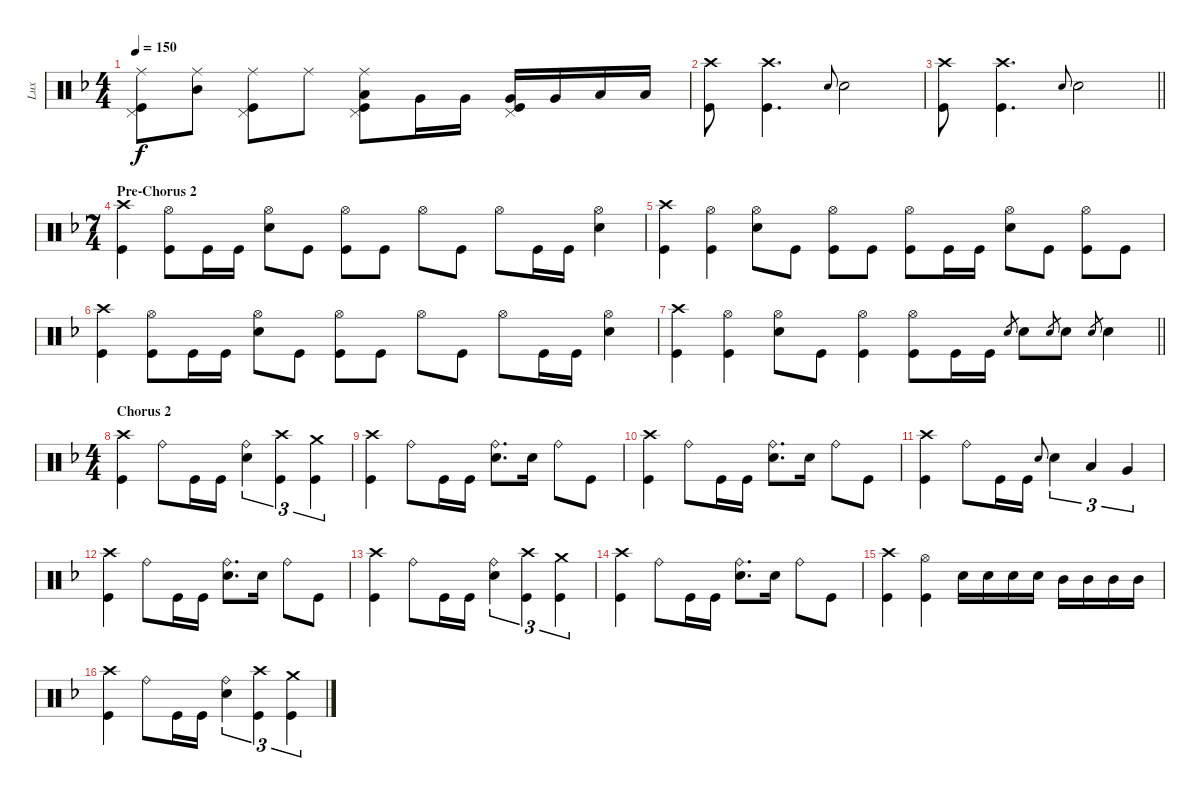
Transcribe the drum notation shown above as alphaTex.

\track ("Lux" "Lux") {instrument percussion}
\staff {score}
\articulation defaults
\ts (4 4)
\tempo 150
\clef neutral
\ks dminor
("Ride (middle)" "Pedal Hi-Hat (hit)" "Kick (hit)").8{dy f} ("Ride (middle)" "Mid Tom (hit)").8 ("Ride (middle)" "Pedal Hi-Hat (hit)" "Kick (hit)").8 "Ride (middle)".8 ("Ride (middle)" "Low Tom (hit)" "Pedal Hi-Hat (hit)" "Kick (hit)").8 "Very Low Tom (hit)".16 "Very Low Tom (hit)".16 ("Very Low Tom (hit)" "Pedal Hi-Hat (hit)" "Kick (hit)").16 "Very Low Tom (hit)".16 "Low Floor Tom (hit)".16 "Low Floor Tom (hit)".16 |
("Crash high (hit)" "Kick (hit)").8 ("Crash high (hit)" "Kick (hit)").4{d} "Snare (hit) 2".8{gr onbeat} "Snare (hit) 2".2 |
\barLineRight lightlight
("Crash high (hit)" "Kick (hit)").8 ("Crash high (hit)" "Kick (hit)").4{d} "Snare (hit) 2".8{gr onbeat} "Snare (hit) 2".2 |
\ts (7 4)
\section ("" "Pre-Chorus 2")
("Crash high (hit)" "Kick (hit)").4 ("Hi-Hat (open)" "Kick (hit)").8 "Kick (hit)".16 "Kick (hit)".16 ("Hi-Hat (open)" "Snare (hit) 2").8 "Kick (hit)".8 ("Hi-Hat (open)" "Kick (hit)").8 "Kick (hit)".8 "Hi-Hat (open)".8 "Kick (hit)".8 "Hi-Hat (open)".8 "Kick (hit)".16 "Kick (hit)".16 ("Hi-Hat (open)" "Snare (hit) 2").4 |
("Crash high (hit)" "Kick (hit)").4 ("Hi-Hat (open)" "Kick (hit)").4 ("Hi-Hat (open)" "Snare (hit) 2").8 "Kick (hit)".8 ("Hi-Hat (open)" "Kick (hit)").8 "Kick (hit)".8 ("Hi-Hat (open)" "Kick (hit)").8 "Kick (hit)".16 "Kick (hit)".16 ("Hi-Hat (open)" "Snare (hit) 2").8 "Kick (hit)".8 ("Hi-Hat (open)" "Kick (hit)").8 "Kick (hit)".8 |
("Crash high (hit)" "Kick (hit)").4 ("Hi-Hat (open)" "Kick (hit)").8 "Kick (hit)".16 "Kick (hit)".16 ("Hi-Hat (open)" "Snare (hit) 2").8 "Kick (hit)".8 ("Hi-Hat (open)" "Kick (hit)").8 "Kick (hit)".8 "Hi-Hat (open)".8 "Kick (hit)".8 "Hi-Hat (open)".8 "Kick (hit)".16 "Kick (hit)".16 ("Hi-Hat (open)" "Snare (hit) 2").4 |
\barLineRight lightlight
("Crash high (hit)" "Kick (hit)").4 ("Hi-Hat (open)" "Kick (hit)").4 ("Hi-Hat (open)" "Snare (hit) 2").8 "Kick (hit)".8 ("Hi-Hat (open)" "Kick (hit)").4 ("Hi-Hat (open)" "Kick (hit)").8 "Kick (hit)".16 "Kick (hit)".16 "Snare (hit) 2".8{gr} "Snare (hit) 2".8 "Snare (hit) 2".8{gr} "Snare (hit) 2".8 "Snare (hit) 2".8{gr} "Snare (hit) 2".4 |
\ts (4 4)
\section ("" "Chorus 2")
("Crash high (hit)" "Kick (hit)").4 "Ride (bell)".8 "Kick (hit)".16 "Kick (hit)".16 ("Ride (bell)" "Snare (hit) 2").4{tu (3 2)} ("Crash high (hit)" "Kick (hit)").4{tu (3 2)} ("Crash medium (hit)" "Kick (hit)").4{tu (3 2)} |
("Crash high (hit)" "Kick (hit)").4 "Ride (bell)".8 "Kick (hit)".16 "Kick (hit)".16 ("Ride (bell)" "Snare (hit) 2").8{d} "Snare (hit) 2".16 "Ride (bell)".8 "Kick (hit)".8 |
("Crash high (hit)" "Kick (hit)").4 "Ride (bell)".8 "Kick (hit)".16 "Kick (hit)".16 ("Ride (bell)" "Snare (hit) 2").8{d} "Snare (hit) 2".16 "Ride (bell)".8 "Kick (hit)".8 |
("Crash high (hit)" "Kick (hit)").4 "Ride (bell)".8 "Kick (hit)".16 "Kick (hit)".16 "Snare (hit) 2".8{gr onbeat} "Snare (hit) 2".4{tu (3 2)} "Low Tom (hit)".4{tu (3 2)} "Very Low Tom (hit)".4{tu (3 2)} |
("Crash high (hit)" "Kick (hit)").4 "Ride (bell)".8 "Kick (hit)".16 "Kick (hit)".16 ("Ride (bell)" "Snare (hit) 2").8{d} "Snare (hit) 2".16 "Ride (bell)".8 "Kick (hit)".8 |
("Crash high (hit)" "Kick (hit)").4 "Ride (bell)".8 "Kick (hit)".16 "Kick (hit)".16 ("Ride (bell)" "Snare (hit) 2").4{tu (3 2)} ("Crash high (hit)" "Kick (hit)").4{tu (3 2)} ("Crash medium (hit)" "Kick (hit)").4{tu (3 2)} |
("Crash high (hit)" "Kick (hit)").4 "Ride (bell)".8 "Kick (hit)".16 "Kick (hit)".16 ("Ride (bell)" "Snare (hit) 2").8{d} "Snare (hit) 2".16 "Ride (bell)".8 "Kick (hit)".8 |
("Crash high (hit)" "Kick (hit)").4 ("Hi-Hat (open)" "Kick (hit)").4 "Snare (hit) 2".16 "Snare (hit) 2".16 "Snare (hit) 2".16 "Snare (hit) 2".16 "Mid Tom (hit)".16 "Mid Tom (hit)".16 "Mid Tom (hit)".16 "Mid Tom (hit)".16 |
("Crash high (hit)" "Kick (hit)").4 "Ride (bell)".8 "Kick (hit)".16 "Kick (hit)".16 ("Ride (bell)" "Snare (hit) 2").4{tu (3 2)} ("Crash high (hit)" "Kick (hit)").4{tu (3 2)} ("Crash medium (hit)" "Kick (hit)").4{tu (3 2)}
